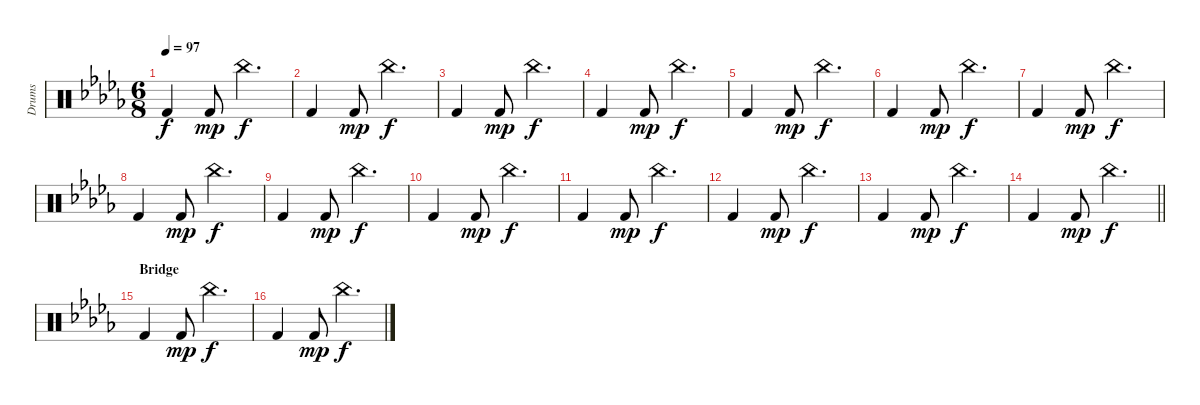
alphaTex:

\track ("Drums" "Drums") {instrument percussion}
\staff {score}
\articulation defaults
\ts (6 8)
\tempo 97
\clef neutral
\ks db "Kick (hit) 2".4{dy f} "Kick (hit) 2".8{dy mp} "China (hit)".4{d dy f}
|
"Kick (hit) 2".4 "Kick (hit) 2".8{dy mp} "China (hit)".4{d dy f} |
"Kick (hit) 2".4 "Kick (hit) 2".8{dy mp} "China (hit)".4{d dy f} |
"Kick (hit) 2".4 "Kick (hit) 2".8{dy mp} "China (hit)".4{d dy f} |
"Kick (hit) 2".4 "Kick (hit) 2".8{dy mp} "China (hit)".4{d dy f} |
"Kick (hit) 2".4 "Kick (hit) 2".8{dy mp} "China (hit)".4{d dy f} |
"Kick (hit) 2".4 "Kick (hit) 2".8{dy mp} "China (hit)".4{d dy f} |
"Kick (hit) 2".4 "Kick (hit) 2".8{dy mp} "China (hit)".4{d dy f} |
"Kick (hit) 2".4 "Kick (hit) 2".8{dy mp} "China (hit)".4{d dy f} |
"Kick (hit) 2".4 "Kick (hit) 2".8{dy mp} "China (hit)".4{d dy f} |
"Kick (hit) 2".4 "Kick (hit) 2".8{dy mp} "China (hit)".4{d dy f} |
"Kick (hit) 2".4 "Kick (hit) 2".8{dy mp} "China (hit)".4{d dy f} |
"Kick (hit) 2".4 "Kick (hit) 2".8{dy mp} "China (hit)".4{d dy f} |
\barLineRight lightlight "Kick (hit) 2".4 "Kick (hit) 2".8{dy mp} "China (hit)".4{d dy f}
|
\section ("" "Bridge")
"Kick (hit) 2".4 "Kick (hit) 2".8{dy mp} "China (hit)".4{d dy f} |
"Kick (hit) 2".4 "Kick (hit) 2".8{dy mp} "China (hit)".4{d dy f}
